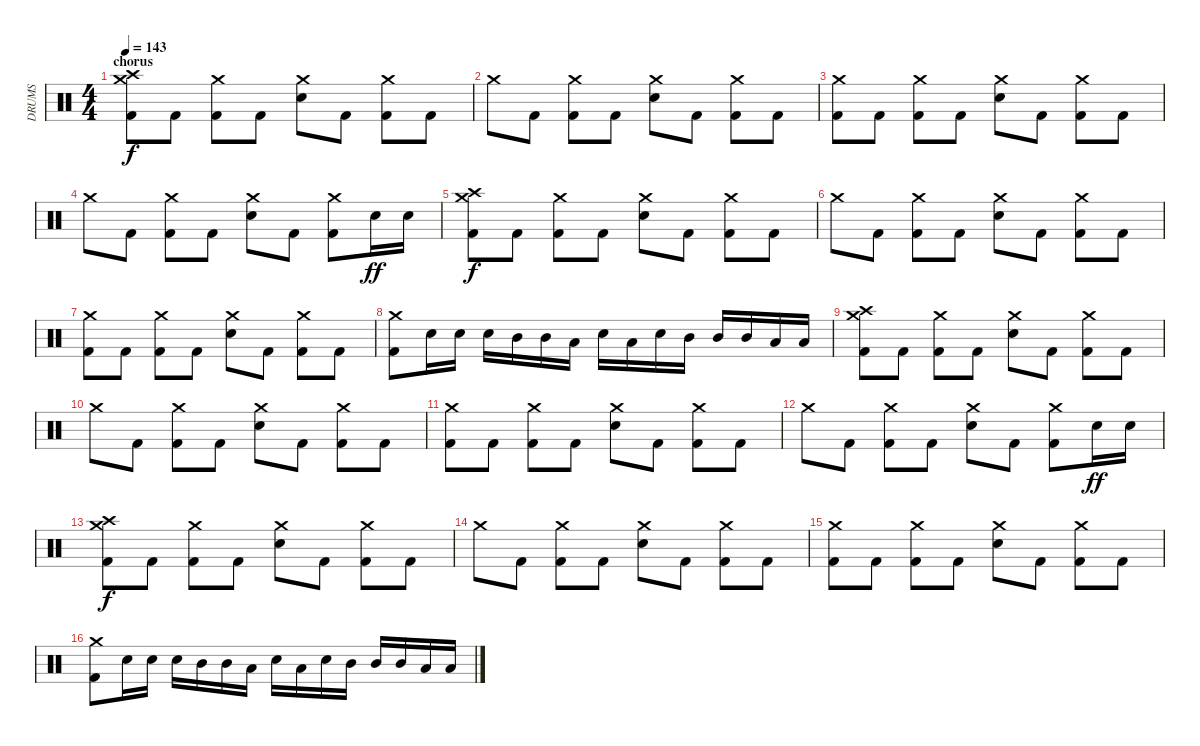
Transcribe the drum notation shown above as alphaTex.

\track ("DRUMS" "DRUMS") {instrument percussion}
\staff {score}
\articulation defaults
\ts (4 4)
\section ("" "chorus")
\tempo 143
\clef neutral
\ks c
("Crash medium (hit)" "Crash high (hit)" "Kick (hit) 2").8{dy f} "Kick (hit) 2".8 ("Crash medium (hit)" "Kick (hit) 2").8 "Kick (hit) 2".8 ("Crash medium (hit)" "Electric Snare (hit)").8 "Kick (hit) 2".8 ("Crash medium (hit)" "Kick (hit) 2").8 "Kick (hit) 2".8 |
"Crash medium (hit)".8 "Kick (hit) 2".8 ("Crash medium (hit)" "Kick (hit) 2").8 "Kick (hit) 2".8 ("Crash medium (hit)" "Electric Snare (hit)").8 "Kick (hit) 2".8 ("Crash medium (hit)" "Kick (hit) 2").8 "Kick (hit) 2".8 |
("Crash medium (hit)" "Kick (hit) 2").8 "Kick (hit) 2".8 ("Crash medium (hit)" "Kick (hit) 2").8 "Kick (hit) 2".8 ("Crash medium (hit)" "Electric Snare (hit)").8 "Kick (hit) 2".8 ("Crash medium (hit)" "Kick (hit) 2").8 "Kick (hit) 2".8 |
"Crash medium (hit)".8 "Kick (hit) 2".8 ("Crash medium (hit)" "Kick (hit) 2").8 "Kick (hit) 2".8 ("Crash medium (hit)" "Electric Snare (hit)").8 "Kick (hit) 2".8 ("Crash medium (hit)" "Kick (hit) 2").8 "Electric Snare (hit)".16{dy ff} "Electric Snare (hit)".16 |
("Crash medium (hit)" "Crash high (hit)" "Kick (hit) 2").8{dy f} "Kick (hit) 2".8 ("Crash medium (hit)" "Kick (hit) 2").8 "Kick (hit) 2".8 ("Crash medium (hit)" "Electric Snare (hit)").8 "Kick (hit) 2".8 ("Crash medium (hit)" "Kick (hit) 2").8 "Kick (hit) 2".8 |
"Crash medium (hit)".8 "Kick (hit) 2".8 ("Crash medium (hit)" "Kick (hit) 2").8 "Kick (hit) 2".8 ("Crash medium (hit)" "Electric Snare (hit)").8 "Kick (hit) 2".8 ("Crash medium (hit)" "Kick (hit) 2").8 "Kick (hit) 2".8 |
("Crash medium (hit)" "Kick (hit) 2").8 "Kick (hit) 2".8 ("Crash medium (hit)" "Kick (hit) 2").8 "Kick (hit) 2".8 ("Crash medium (hit)" "Electric Snare (hit)").8 "Kick (hit) 2".8 ("Crash medium (hit)" "Kick (hit) 2").8 "Kick (hit) 2".8 |
("Crash medium (hit)" "Kick (hit) 2").8 "Electric Snare (hit)".16 "Electric Snare (hit)".16 "Electric Snare (hit)".16 "Mid Tom (hit)".16 "Mid Tom (hit)".16 "Low Tom (hit)".16 "Electric Snare (hit)".16 "Low Tom (hit)".16 "Electric Snare (hit)".16 "Mid Tom (hit)".16 "Mid Tom (hit)".16 "Mid Tom (hit)".16 "Low Tom (hit)".16 "Low Tom (hit)".16 |
("Crash medium (hit)" "Crash high (hit)" "Kick (hit) 2").8 "Kick (hit) 2".8 ("Crash medium (hit)" "Kick (hit) 2").8 "Kick (hit) 2".8 ("Crash medium (hit)" "Electric Snare (hit)").8 "Kick (hit) 2".8 ("Crash medium (hit)" "Kick (hit) 2").8 "Kick (hit) 2".8 |
"Crash medium (hit)".8 "Kick (hit) 2".8 ("Crash medium (hit)" "Kick (hit) 2").8 "Kick (hit) 2".8 ("Crash medium (hit)" "Electric Snare (hit)").8 "Kick (hit) 2".8 ("Crash medium (hit)" "Kick (hit) 2").8 "Kick (hit) 2".8 |
("Crash medium (hit)" "Kick (hit) 2").8 "Kick (hit) 2".8 ("Crash medium (hit)" "Kick (hit) 2").8 "Kick (hit) 2".8 ("Crash medium (hit)" "Electric Snare (hit)").8 "Kick (hit) 2".8 ("Crash medium (hit)" "Kick (hit) 2").8 "Kick (hit) 2".8 |
"Crash medium (hit)".8 "Kick (hit) 2".8 ("Crash medium (hit)" "Kick (hit) 2").8 "Kick (hit) 2".8 ("Crash medium (hit)" "Electric Snare (hit)").8 "Kick (hit) 2".8 ("Crash medium (hit)" "Kick (hit) 2").8 "Electric Snare (hit)".16{dy ff} "Electric Snare (hit)".16 |
("Crash medium (hit)" "Crash high (hit)" "Kick (hit) 2").8{dy f} "Kick (hit) 2".8 ("Crash medium (hit)" "Kick (hit) 2").8 "Kick (hit) 2".8 ("Crash medium (hit)" "Electric Snare (hit)").8 "Kick (hit) 2".8 ("Crash medium (hit)" "Kick (hit) 2").8 "Kick (hit) 2".8 |
"Crash medium (hit)".8 "Kick (hit) 2".8 ("Crash medium (hit)" "Kick (hit) 2").8 "Kick (hit) 2".8 ("Crash medium (hit)" "Electric Snare (hit)").8 "Kick (hit) 2".8 ("Crash medium (hit)" "Kick (hit) 2").8 "Kick (hit) 2".8 |
("Crash medium (hit)" "Kick (hit) 2").8 "Kick (hit) 2".8 ("Crash medium (hit)" "Kick (hit) 2").8 "Kick (hit) 2".8 ("Crash medium (hit)" "Electric Snare (hit)").8 "Kick (hit) 2".8 ("Crash medium (hit)" "Kick (hit) 2").8 "Kick (hit) 2".8 |
("Crash medium (hit)" "Kick (hit) 2").8 "Electric Snare (hit)".16 "Electric Snare (hit)".16 "Electric Snare (hit)".16 "Mid Tom (hit)".16 "Mid Tom (hit)".16 "Low Tom (hit)".16 "Electric Snare (hit)".16 "Low Tom (hit)".16 "Electric Snare (hit)".16 "Mid Tom (hit)".16 "Mid Tom (hit)".16 "Mid Tom (hit)".16 "Low Tom (hit)".16 "Low Tom (hit)".16
